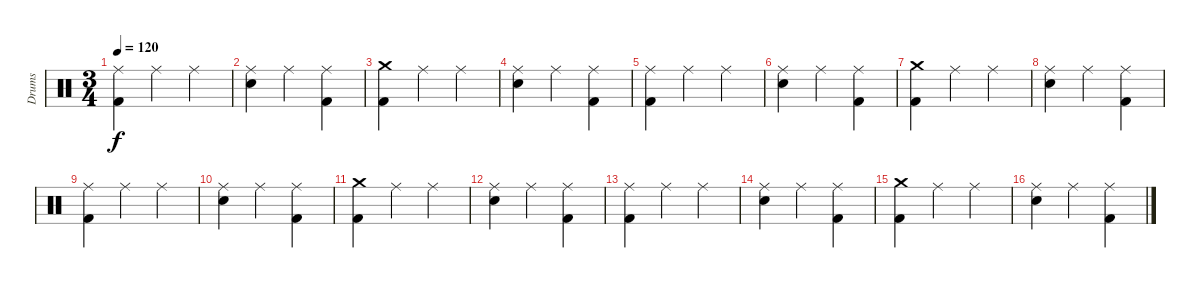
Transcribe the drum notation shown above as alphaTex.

\track ("Drums" "Drums") {instrument percussion}
\staff {score}
\articulation defaults
\ts (3 4)
\tempo 120
\clef neutral
\ks c
("Ride (middle)" "Kick (hit) 2").4{dy f} "Ride (middle)".4 "Ride (middle)".4 |
("Ride (middle)" "Electric Snare (hit)").4 "Ride (middle)".4 ("Ride (middle)" "Kick (hit) 2").4 |
("Crash medium (hit)" "Kick (hit) 2").4 "Ride (middle)".4 "Ride (middle)".4 |
("Ride (middle)" "Electric Snare (hit)").4 "Ride (middle)".4 ("Ride (middle)" "Kick (hit) 2").4 |
("Ride (middle)" "Kick (hit) 2").4 "Ride (middle)".4 "Ride (middle)".4 |
("Ride (middle)" "Electric Snare (hit)").4 "Ride (middle)".4 ("Ride (middle)" "Kick (hit) 2").4 |
("Crash medium (hit)" "Kick (hit) 2").4 "Ride (middle)".4 "Ride (middle)".4 |
("Ride (middle)" "Electric Snare (hit)").4 "Ride (middle)".4 ("Ride (middle)" "Kick (hit) 2").4 |
("Ride (middle)" "Kick (hit) 2").4 "Ride (middle)".4 "Ride (middle)".4 |
("Ride (middle)" "Electric Snare (hit)").4 "Ride (middle)".4 ("Ride (middle)" "Kick (hit) 2").4 |
("Crash medium (hit)" "Kick (hit) 2").4 "Ride (middle)".4 "Ride (middle)".4 |
("Ride (middle)" "Electric Snare (hit)").4 "Ride (middle)".4 ("Ride (middle)" "Kick (hit) 2").4 |
("Ride (middle)" "Kick (hit) 2").4 "Ride (middle)".4 "Ride (middle)".4 |
("Ride (middle)" "Electric Snare (hit)").4 "Ride (middle)".4 ("Ride (middle)" "Kick (hit) 2").4 |
("Crash medium (hit)" "Kick (hit) 2").4 "Ride (middle)".4 "Ride (middle)".4 |
("Ride (middle)" "Electric Snare (hit)").4 "Ride (middle)".4 ("Ride (middle)" "Kick (hit) 2").4
